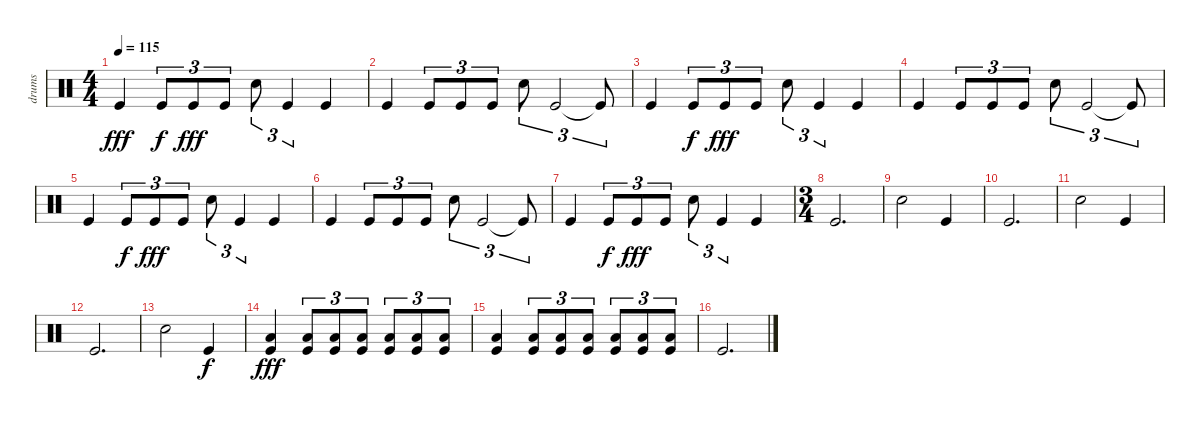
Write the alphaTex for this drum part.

\track ("drums" "drums") {instrument percussion}
\staff {score}
\articulation defaults
\ts (4 4)
\tempo 115
\clef neutral
\ks c "Kick (hit)".4{dy fff} "Kick (hit)".8{tu (3 2) dy f} "Kick (hit)".8{tu (3 2) dy fff} "Kick (hit)".8{tu (3 2)} "Electric Snare (hit)".8{tu (3 2)} "Kick (hit)".4{tu (3 2)} "Kick (hit)".4
|
"Kick (hit)".4 "Kick (hit)".8{tu (3 2)} "Kick (hit)".8{tu (3 2)} "Kick (hit)".8{tu (3 2)} "Electric Snare (hit)".8{tu (3 2)} "Kick (hit)".2{tu (3 2)} "Kick (hit)"{t}.8{tu (3 2)} |
"Kick (hit)".4 "Kick (hit)".8{tu (3 2) dy f} "Kick (hit)".8{tu (3 2) dy fff} "Kick (hit)".8{tu (3 2)} "Electric Snare (hit)".8{tu (3 2)} "Kick (hit)".4{tu (3 2)} "Kick (hit)".4 |
"Kick (hit)".4 "Kick (hit)".8{tu (3 2)} "Kick (hit)".8{tu (3 2)} "Kick (hit)".8{tu (3 2)} "Electric Snare (hit)".8{tu (3 2)} "Kick (hit)".2{tu (3 2)} "Kick (hit)"{t}.8{tu (3 2)} |
"Kick (hit)".4 "Kick (hit)".8{tu (3 2) dy f} "Kick (hit)".8{tu (3 2) dy fff} "Kick (hit)".8{tu (3 2)} "Electric Snare (hit)".8{tu (3 2)} "Kick (hit)".4{tu (3 2)} "Kick (hit)".4 |
"Kick (hit)".4 "Kick (hit)".8{tu (3 2)} "Kick (hit)".8{tu (3 2)} "Kick (hit)".8{tu (3 2)} "Electric Snare (hit)".8{tu (3 2)} "Kick (hit)".2{tu (3 2)} "Kick (hit)"{t}.8{tu (3 2)} |
"Kick (hit)".4 "Kick (hit)".8{tu (3 2) dy f} "Kick (hit)".8{tu (3 2) dy fff} "Kick (hit)".8{tu (3 2)} "Electric Snare (hit)".8{tu (3 2)} "Kick (hit)".4{tu (3 2)} "Kick (hit)".4 |
\ts (3 4)
"Kick (hit)".2{d} |
"Electric Snare (hit)".2 "Kick (hit)".4 |
"Kick (hit)".2{d} |
"Electric Snare (hit)".2 "Kick (hit)".4 |
"Kick (hit)".2{d} |
"Electric Snare (hit)".2 "Kick (hit)".4{dy f} |
("Low Floor Tom (hit)" "Kick (hit)").4{dy fff} ("Low Floor Tom (hit)" "Kick (hit)").8{tu (3 2)} ("Low Floor Tom (hit)" "Kick (hit)").8{tu (3 2)} ("Low Floor Tom (hit)" "Kick (hit)").8{tu (3 2)} ("Low Floor Tom (hit)" "Kick (hit)").8{tu (3 2)} ("Low Floor Tom (hit)" "Kick (hit)").8{tu (3 2)} ("Low Floor Tom (hit)" "Kick (hit)").8{tu (3 2)} |
("Low Floor Tom (hit)" "Kick (hit)").4 ("Low Floor Tom (hit)" "Kick (hit)").8{tu (3 2)} ("Low Floor Tom (hit)" "Kick (hit)").8{tu (3 2)} ("Low Floor Tom (hit)" "Kick (hit)").8{tu (3 2)} ("Low Floor Tom (hit)" "Kick (hit)").8{tu (3 2)} ("Low Floor Tom (hit)" "Kick (hit)").8{tu (3 2)} ("Low Floor Tom (hit)" "Kick (hit)").8{tu (3 2)} |
"Kick (hit)".2{d}
